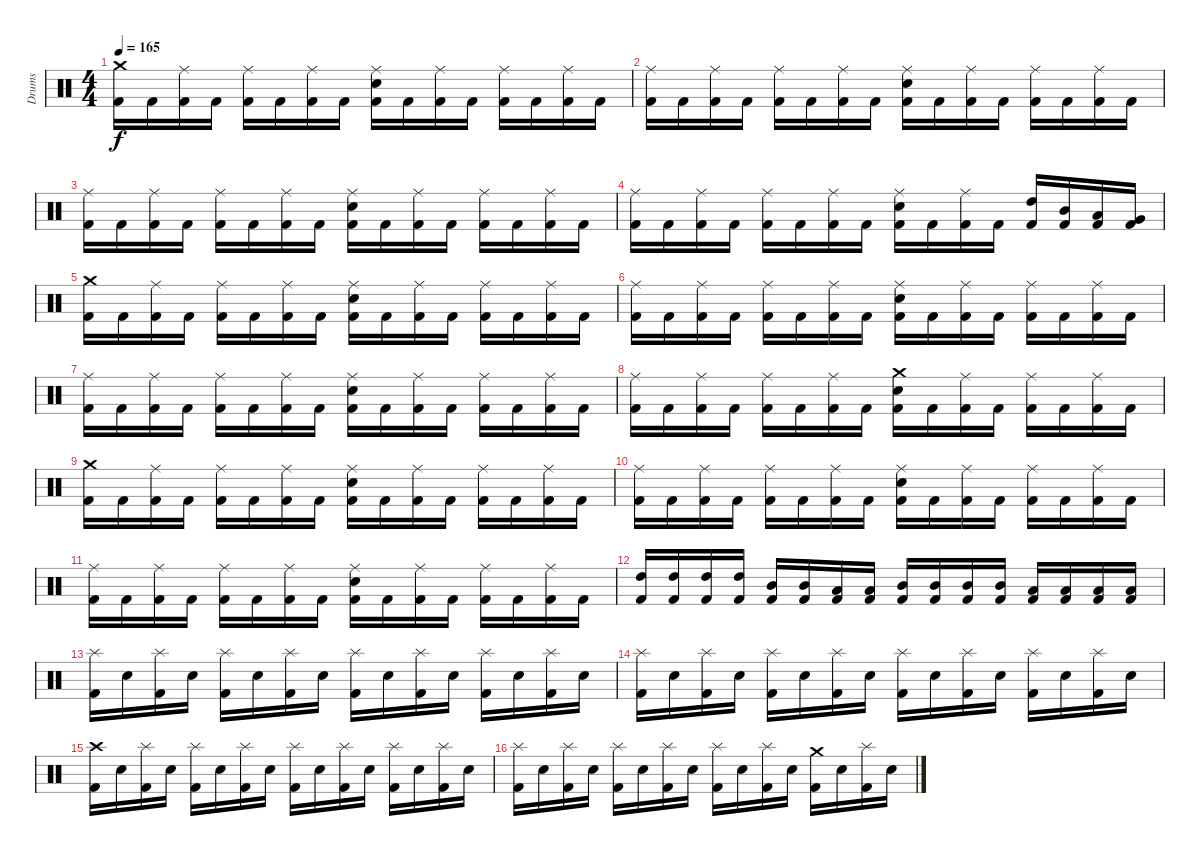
\track ("Drums" "Drums") {instrument percussion}
\staff {score}
\articulation defaults
\ts (4 4)
\tempo 165
\clef neutral
\ks c
("Crash medium (hit)" "Kick (hit) 2").16{dy f} "Kick (hit) 2".16 ("Ride (middle)" "Kick (hit) 2").16 "Kick (hit) 2".16 ("Ride (middle)" "Kick (hit) 2").16 "Kick (hit) 2".16 ("Ride (middle)" "Kick (hit) 2").16 "Kick (hit) 2".16 ("Ride (middle)" "Snare (hit) 2" "Kick (hit) 2").16 "Kick (hit) 2".16 ("Ride (middle)" "Kick (hit) 2").16 "Kick (hit) 2".16 ("Ride (middle)" "Kick (hit) 2").16 "Kick (hit) 2".16 ("Ride (middle)" "Kick (hit) 2").16 "Kick (hit) 2".16 |
("Ride (middle)" "Kick (hit) 2").16 "Kick (hit) 2".16 ("Ride (middle)" "Kick (hit) 2").16 "Kick (hit) 2".16 ("Ride (middle)" "Kick (hit) 2").16 "Kick (hit) 2".16 ("Ride (middle)" "Kick (hit) 2").16 "Kick (hit) 2".16 ("Ride (middle)" "Snare (hit) 2" "Kick (hit) 2").16 "Kick (hit) 2".16 ("Ride (middle)" "Kick (hit) 2").16 "Kick (hit) 2".16 ("Ride (middle)" "Kick (hit) 2").16 "Kick (hit) 2".16 ("Ride (middle)" "Kick (hit) 2").16 "Kick (hit) 2".16 |
("Ride (middle)" "Kick (hit) 2").16 "Kick (hit) 2".16 ("Ride (middle)" "Kick (hit) 2").16 "Kick (hit) 2".16 ("Ride (middle)" "Kick (hit) 2").16 "Kick (hit) 2".16 ("Ride (middle)" "Kick (hit) 2").16 "Kick (hit) 2".16 ("Ride (middle)" "Snare (hit) 2" "Kick (hit) 2").16 "Kick (hit) 2".16 ("Ride (middle)" "Kick (hit) 2").16 "Kick (hit) 2".16 ("Ride (middle)" "Kick (hit) 2").16 "Kick (hit) 2".16 ("Ride (middle)" "Kick (hit) 2").16 "Kick (hit) 2".16 |
("Ride (middle)" "Kick (hit) 2").16 "Kick (hit) 2".16 ("Ride (middle)" "Kick (hit) 2").16 "Kick (hit) 2".16 ("Ride (middle)" "Kick (hit) 2").16 "Kick (hit) 2".16 ("Ride (middle)" "Kick (hit) 2").16 "Kick (hit) 2".16 ("Ride (middle)" "Snare (hit) 2" "Kick (hit) 2").16 "Kick (hit) 2".16 ("Ride (middle)" "Kick (hit) 2").16 "Kick (hit) 2".16 ("High Tom (hit)" "Kick (hit) 2").16 ("Mid Tom (hit)" "Kick (hit) 2").16 ("Low Tom (hit)" "Kick (hit) 2").16 ("Very Low Tom (hit)" "Kick (hit) 2").16 |
("Crash medium (hit)" "Kick (hit) 2").16 "Kick (hit) 2".16 ("Ride (middle)" "Kick (hit) 2").16 "Kick (hit) 2".16 ("Ride (middle)" "Kick (hit) 2").16 "Kick (hit) 2".16 ("Ride (middle)" "Kick (hit) 2").16 "Kick (hit) 2".16 ("Ride (middle)" "Snare (hit) 2" "Kick (hit) 2").16 "Kick (hit) 2".16 ("Ride (middle)" "Kick (hit) 2").16 "Kick (hit) 2".16 ("Ride (middle)" "Kick (hit) 2").16 "Kick (hit) 2".16 ("Ride (middle)" "Kick (hit) 2").16 "Kick (hit) 2".16 |
("Ride (middle)" "Kick (hit) 2").16 "Kick (hit) 2".16 ("Ride (middle)" "Kick (hit) 2").16 "Kick (hit) 2".16 ("Ride (middle)" "Kick (hit) 2").16 "Kick (hit) 2".16 ("Ride (middle)" "Kick (hit) 2").16 "Kick (hit) 2".16 ("Ride (middle)" "Snare (hit) 2" "Kick (hit) 2").16 "Kick (hit) 2".16 ("Ride (middle)" "Kick (hit) 2").16 "Kick (hit) 2".16 ("Ride (middle)" "Kick (hit) 2").16 "Kick (hit) 2".16 ("Ride (middle)" "Kick (hit) 2").16 "Kick (hit) 2".16 |
("Ride (middle)" "Kick (hit) 2").16 "Kick (hit) 2".16 ("Ride (middle)" "Kick (hit) 2").16 "Kick (hit) 2".16 ("Ride (middle)" "Kick (hit) 2").16 "Kick (hit) 2".16 ("Ride (middle)" "Kick (hit) 2").16 "Kick (hit) 2".16 ("Ride (middle)" "Snare (hit) 2" "Kick (hit) 2").16 "Kick (hit) 2".16 ("Ride (middle)" "Kick (hit) 2").16 "Kick (hit) 2".16 ("Ride (middle)" "Kick (hit) 2").16 "Kick (hit) 2".16 ("Ride (middle)" "Kick (hit) 2").16 "Kick (hit) 2".16 |
("Ride (middle)" "Kick (hit) 2").16 "Kick (hit) 2".16 ("Ride (middle)" "Kick (hit) 2").16 "Kick (hit) 2".16 ("Ride (middle)" "Kick (hit) 2").16 "Kick (hit) 2".16 ("Ride (middle)" "Kick (hit) 2").16 "Kick (hit) 2".16 ("Crash medium (hit)" "Snare (hit) 2" "Kick (hit) 2").16 "Kick (hit) 2".16 ("Ride (middle)" "Kick (hit) 2").16 "Kick (hit) 2".16 ("Ride (middle)" "Kick (hit) 2").16 "Kick (hit) 2".16 ("Ride (middle)" "Kick (hit) 2").16 "Kick (hit) 2".16 |
("Crash medium (hit)" "Kick (hit) 2").16 "Kick (hit) 2".16 ("Ride (middle)" "Kick (hit) 2").16 "Kick (hit) 2".16 ("Ride (middle)" "Kick (hit) 2").16 "Kick (hit) 2".16 ("Ride (middle)" "Kick (hit) 2").16 "Kick (hit) 2".16 ("Ride (middle)" "Snare (hit) 2" "Kick (hit) 2").16 "Kick (hit) 2".16 ("Ride (middle)" "Kick (hit) 2").16 "Kick (hit) 2".16 ("Ride (middle)" "Kick (hit) 2").16 "Kick (hit) 2".16 ("Ride (middle)" "Kick (hit) 2").16 "Kick (hit) 2".16 |
("Ride (middle)" "Kick (hit) 2").16 "Kick (hit) 2".16 ("Ride (middle)" "Kick (hit) 2").16 "Kick (hit) 2".16 ("Ride (middle)" "Kick (hit) 2").16 "Kick (hit) 2".16 ("Ride (middle)" "Kick (hit) 2").16 "Kick (hit) 2".16 ("Ride (middle)" "Snare (hit) 2" "Kick (hit) 2").16 "Kick (hit) 2".16 ("Ride (middle)" "Kick (hit) 2").16 "Kick (hit) 2".16 ("Ride (middle)" "Kick (hit) 2").16 "Kick (hit) 2".16 ("Ride (middle)" "Kick (hit) 2").16 "Kick (hit) 2".16 |
("Ride (middle)" "Kick (hit) 2").16 "Kick (hit) 2".16 ("Ride (middle)" "Kick (hit) 2").16 "Kick (hit) 2".16 ("Ride (middle)" "Kick (hit) 2").16 "Kick (hit) 2".16 ("Ride (middle)" "Kick (hit) 2").16 "Kick (hit) 2".16 ("Ride (middle)" "Snare (hit) 2" "Kick (hit) 2").16 "Kick (hit) 2".16 ("Ride (middle)" "Kick (hit) 2").16 "Kick (hit) 2".16 ("Ride (middle)" "Kick (hit) 2").16 "Kick (hit) 2".16 ("Ride (middle)" "Kick (hit) 2").16 "Kick (hit) 2".16 |
("High Tom (hit)" "Kick (hit) 2").16 ("High Tom (hit)" "Kick (hit) 2").16 ("High Tom (hit)" "Kick (hit) 2").16 ("High Tom (hit)" "Kick (hit) 2").16 ("Mid Tom (hit)" "Kick (hit) 2").16 ("Mid Tom (hit)" "Kick (hit) 2").16 ("Low Tom (hit)" "Kick (hit) 2").16 ("Low Tom (hit)" "Kick (hit) 2").16 ("Mid Tom (hit)" "Kick (hit) 2").16 ("Mid Tom (hit)" "Kick (hit) 2").16 ("Mid Tom (hit)" "Kick (hit) 2").16 ("Mid Tom (hit)" "Kick (hit) 2").16 ("Low Tom (hit)" "Kick (hit) 2").16 ("Low Tom (hit)" "Kick (hit) 2").16 ("Low Tom (hit)" "Kick (hit) 2").16 ("Low Tom (hit)" "Kick (hit) 2").16 |
("Splash (hit)" "Kick (hit) 2").16 "Snare (hit) 2".16 ("Splash (hit)" "Kick (hit) 2").16 "Snare (hit) 2".16 ("Splash (hit)" "Kick (hit) 2").16 "Snare (hit) 2".16 ("Splash (hit)" "Kick (hit) 2").16 "Snare (hit) 2".16 ("Splash (hit)" "Kick (hit) 2").16 "Snare (hit) 2".16 ("Splash (hit)" "Kick (hit) 2").16 "Snare (hit) 2".16 ("Splash (hit)" "Kick (hit) 2").16 "Snare (hit) 2".16 ("Splash (hit)" "Kick (hit) 2").16 "Snare (hit) 2".16 |
("Splash (hit)" "Kick (hit) 2").16 "Snare (hit) 2".16 ("Splash (hit)" "Kick (hit) 2").16 "Snare (hit) 2".16 ("Splash (hit)" "Kick (hit) 2").16 "Snare (hit) 2".16 ("Splash (hit)" "Kick (hit) 2").16 "Snare (hit) 2".16 ("Splash (hit)" "Kick (hit) 2").16 "Snare (hit) 2".16 ("Splash (hit)" "Kick (hit) 2").16 "Snare (hit) 2".16 ("Splash (hit)" "Kick (hit) 2").16 "Snare (hit) 2".16 ("Splash (hit)" "Kick (hit) 2").16 "Snare (hit) 2".16 |
("Crash high (hit)" "Kick (hit) 2").16 "Snare (hit) 2".16 ("Splash (hit)" "Kick (hit) 2").16 "Snare (hit) 2".16 ("Splash (hit)" "Kick (hit) 2").16 "Snare (hit) 2".16 ("Splash (hit)" "Kick (hit) 2").16 "Snare (hit) 2".16 ("Splash (hit)" "Kick (hit) 2").16 "Snare (hit) 2".16 ("Splash (hit)" "Kick (hit) 2").16 "Snare (hit) 2".16 ("Splash (hit)" "Kick (hit) 2").16 "Snare (hit) 2".16 ("Splash (hit)" "Kick (hit) 2").16 "Snare (hit) 2".16 |
("Splash (hit)" "Kick (hit) 2").16 "Snare (hit) 2".16 ("Splash (hit)" "Kick (hit) 2").16 "Snare (hit) 2".16 ("Splash (hit)" "Kick (hit) 2").16 "Snare (hit) 2".16 ("Splash (hit)" "Kick (hit) 2").16 "Snare (hit) 2".16 ("Splash (hit)" "Kick (hit) 2").16 "Snare (hit) 2".16 ("Splash (hit)" "Kick (hit) 2").16 "Snare (hit) 2".16 ("Crash medium (hit)" "Kick (hit) 2").16 "Snare (hit) 2".16 ("Splash (hit)" "Kick (hit) 2").16 "Snare (hit) 2".16
